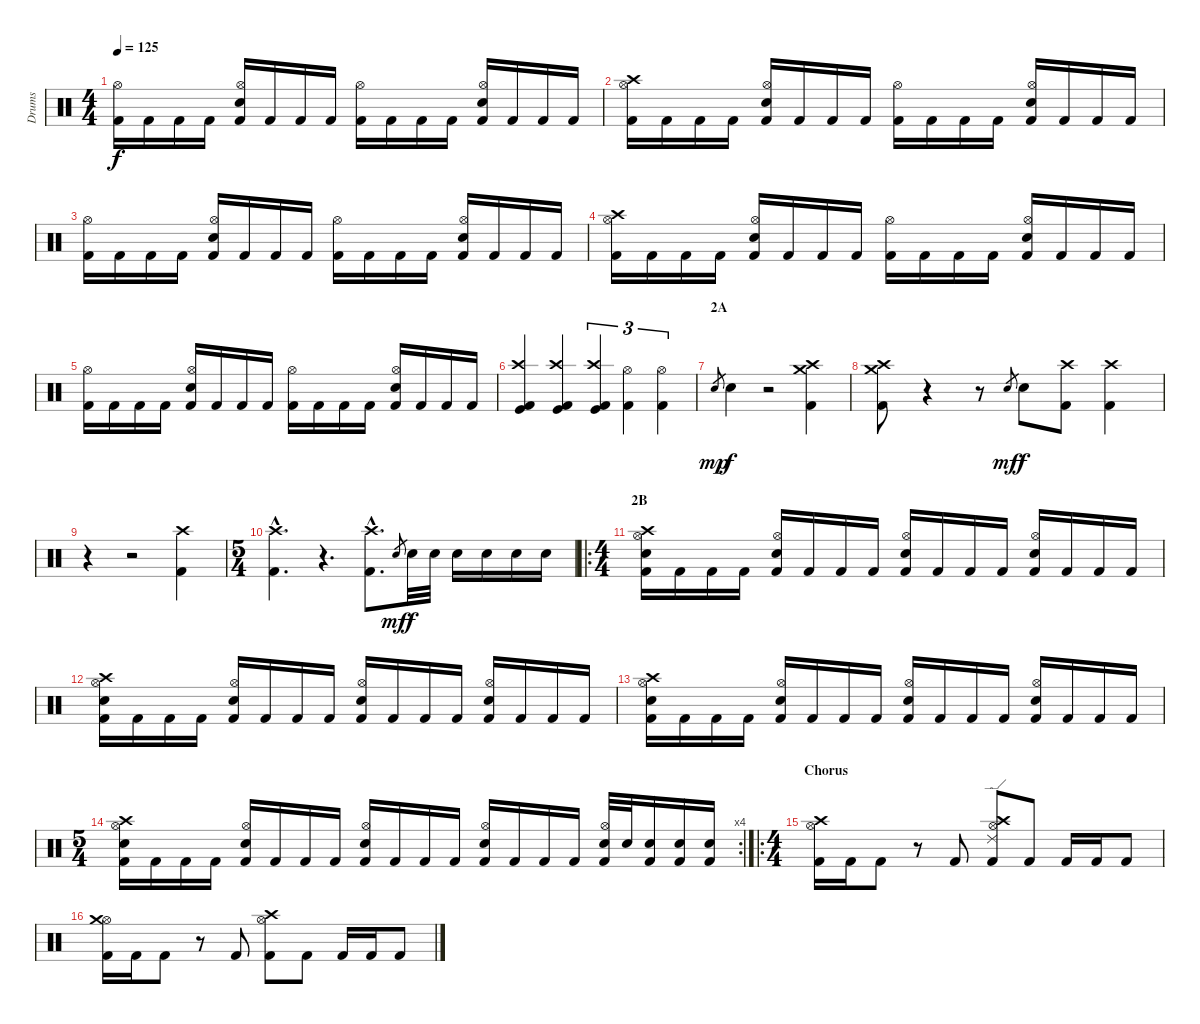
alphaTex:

\track ("Drums" "Drums") {instrument percussion}
\staff {score}
\articulation defaults
\ts (4 4)
\tempo 125
\clef neutral
\ks c
("Kick (hit) 2" "Hi-Hat (open)").16{dy f} "Kick (hit) 2".16 "Kick (hit) 2".16 "Kick (hit) 2".16 ("Kick (hit) 2" "Hi-Hat (open)" "Electric Snare (hit)").16 "Kick (hit) 2".16 "Kick (hit) 2".16 "Kick (hit) 2".16 ("Kick (hit) 2" "Hi-Hat (open)").16 "Kick (hit) 2".16 "Kick (hit) 2".16 "Kick (hit) 2".16 ("Kick (hit) 2" "Hi-Hat (open)" "Electric Snare (hit)").16 "Kick (hit) 2".16 "Kick (hit) 2".16 "Kick (hit) 2".16 |
("Kick (hit) 2" "Hi-Hat (open)" "Crash high (hit)").16 "Kick (hit) 2".16 "Kick (hit) 2".16 "Kick (hit) 2".16 ("Kick (hit) 2" "Hi-Hat (open)" "Electric Snare (hit)").16 "Kick (hit) 2".16 "Kick (hit) 2".16 "Kick (hit) 2".16 ("Kick (hit) 2" "Hi-Hat (open)").16 "Kick (hit) 2".16 "Kick (hit) 2".16 "Kick (hit) 2".16 ("Kick (hit) 2" "Hi-Hat (open)" "Electric Snare (hit)").16 "Kick (hit) 2".16 "Kick (hit) 2".16 "Kick (hit) 2".16 |
("Kick (hit) 2" "Hi-Hat (open)").16 "Kick (hit) 2".16 "Kick (hit) 2".16 "Kick (hit) 2".16 ("Kick (hit) 2" "Hi-Hat (open)" "Electric Snare (hit)").16 "Kick (hit) 2".16 "Kick (hit) 2".16 "Kick (hit) 2".16 ("Kick (hit) 2" "Hi-Hat (open)").16 "Kick (hit) 2".16 "Kick (hit) 2".16 "Kick (hit) 2".16 ("Kick (hit) 2" "Hi-Hat (open)" "Electric Snare (hit)").16 "Kick (hit) 2".16 "Kick (hit) 2".16 "Kick (hit) 2".16 |
("Kick (hit) 2" "Hi-Hat (open)" "Crash high (hit)").16 "Kick (hit) 2".16 "Kick (hit) 2".16 "Kick (hit) 2".16 ("Kick (hit) 2" "Hi-Hat (open)" "Electric Snare (hit)").16 "Kick (hit) 2".16 "Kick (hit) 2".16 "Kick (hit) 2".16 ("Kick (hit) 2" "Hi-Hat (open)").16 "Kick (hit) 2".16 "Kick (hit) 2".16 "Kick (hit) 2".16 ("Kick (hit) 2" "Hi-Hat (open)" "Electric Snare (hit)").16 "Kick (hit) 2".16 "Kick (hit) 2".16 "Kick (hit) 2".16 |
("Kick (hit) 2" "Hi-Hat (open)").16 "Kick (hit) 2".16 "Kick (hit) 2".16 "Kick (hit) 2".16 ("Kick (hit) 2" "Hi-Hat (open)" "Electric Snare (hit)").16 "Kick (hit) 2".16 "Kick (hit) 2".16 "Kick (hit) 2".16 ("Kick (hit) 2" "Hi-Hat (open)").16 "Kick (hit) 2".16 "Kick (hit) 2".16 "Kick (hit) 2".16 ("Kick (hit) 2" "Hi-Hat (open)" "Electric Snare (hit)").16 "Kick (hit) 2".16 "Kick (hit) 2".16 "Kick (hit) 2".16 |
("Crash high (hit)" "Kick (hit)" "Kick (hit) 2").4 ("Crash high (hit)" "Kick (hit)" "Kick (hit) 2").4 ("Crash high (hit)" "Kick (hit)" "Kick (hit) 2").4{tu (3 2)} ("Hi-Hat (open)" "Kick (hit) 2").4{tu (3 2)} ("Hi-Hat (open)" "Kick (hit) 2").4{tu (3 2)} |
\section ("" "2A")
"Snare (hit) 2".8{gr dy mp} "Electric Snare (hit)".4{dy f} r.2 ("Crash high (hit)" "Crash medium (hit)" "Kick (hit) 2").4 |
("Crash high (hit)" "Crash medium (hit)" "Kick (hit) 2").8 r.4 r.8 "Snare (hit) 2".8{gr dy mf} "Electric Snare (hit)".8{dy f} ("Crash high (hit)" "Kick (hit) 2").8 ("Crash high (hit)" "Kick (hit) 2").4 |
r.4 r.2 ("Crash high (hit)" "Kick (hit) 2").4 |
\ts (5 4)
("Crash high (hit)"{hac} "Kick (hit) 2"{hac}).4{d} r.4{d} ("Crash high (hit)"{hac} "Kick (hit) 2"{hac}).8{d} "Snare (hit) 2".8{gr dy mf} "Electric Snare (hit)".32{dy f} "Electric Snare (hit)".32 "Electric Snare (hit)".16 "Electric Snare (hit)".16 "Electric Snare (hit)".16 "Electric Snare (hit)".16 |
\ro
\ts (4 4)
\section ("" "2B")
("Kick (hit) 2" "Electric Snare (hit)" "Hi-Hat (open)" "Crash high (hit)").16 "Kick (hit) 2".16 "Kick (hit) 2".16 "Kick (hit) 2".16 ("Kick (hit) 2" "Electric Snare (hit)" "Hi-Hat (open)").16 "Kick (hit) 2".16 "Kick (hit) 2".16 "Kick (hit) 2".16 ("Kick (hit) 2" "Electric Snare (hit)" "Hi-Hat (open)").16 "Kick (hit) 2".16 "Kick (hit) 2".16 "Kick (hit) 2".16 ("Kick (hit) 2" "Electric Snare (hit)" "Hi-Hat (open)").16 "Kick (hit) 2".16 "Kick (hit) 2".16 "Kick (hit) 2".16 |
("Kick (hit) 2" "Electric Snare (hit)" "Hi-Hat (open)" "Crash high (hit)").16 "Kick (hit) 2".16 "Kick (hit) 2".16 "Kick (hit) 2".16 ("Kick (hit) 2" "Electric Snare (hit)" "Hi-Hat (open)").16 "Kick (hit) 2".16 "Kick (hit) 2".16 "Kick (hit) 2".16 ("Kick (hit) 2" "Electric Snare (hit)" "Hi-Hat (open)").16 "Kick (hit) 2".16 "Kick (hit) 2".16 "Kick (hit) 2".16 ("Kick (hit) 2" "Electric Snare (hit)" "Hi-Hat (open)").16 "Kick (hit) 2".16 "Kick (hit) 2".16 "Kick (hit) 2".16 |
("Kick (hit) 2" "Electric Snare (hit)" "Hi-Hat (open)" "Crash high (hit)").16 "Kick (hit) 2".16 "Kick (hit) 2".16 "Kick (hit) 2".16 ("Kick (hit) 2" "Electric Snare (hit)" "Hi-Hat (open)").16 "Kick (hit) 2".16 "Kick (hit) 2".16 "Kick (hit) 2".16 ("Kick (hit) 2" "Electric Snare (hit)" "Hi-Hat (open)").16 "Kick (hit) 2".16 "Kick (hit) 2".16 "Kick (hit) 2".16 ("Kick (hit) 2" "Electric Snare (hit)" "Hi-Hat (open)").16 "Kick (hit) 2".16 "Kick (hit) 2".16 "Kick (hit) 2".16 |
\rc 4
\ts (5 4)
("Kick (hit) 2" "Electric Snare (hit)" "Hi-Hat (open)" "Crash high (hit)").16 "Kick (hit) 2".16 "Kick (hit) 2".16 "Kick (hit) 2".16 ("Kick (hit) 2" "Electric Snare (hit)" "Hi-Hat (open)").16 "Kick (hit) 2".16 "Kick (hit) 2".16 "Kick (hit) 2".16 ("Kick (hit) 2" "Electric Snare (hit)" "Hi-Hat (open)").16 "Kick (hit) 2".16 "Kick (hit) 2".16 "Kick (hit) 2".16 ("Kick (hit) 2" "Electric Snare (hit)" "Hi-Hat (open)").16 "Kick (hit) 2".16 "Kick (hit) 2".16 "Kick (hit) 2".16 ("Kick (hit) 2" "Electric Snare (hit)" "Hi-Hat (open)").32 "Electric Snare (hit)".32 ("Kick (hit) 2" "Electric Snare (hit)").16 ("Kick (hit) 2" "Electric Snare (hit)").16 ("Kick (hit) 2" "Electric Snare (hit)").16 |
\ro
\ts (4 4)
\section ("" "Chorus")
("Kick (hit) 2" "Hi-Hat (open)" "Crash high (hit)").16 "Kick (hit) 2".16 "Kick (hit) 2".8 r.8 "Kick (hit) 2".8 ("Kick (hit) 2" "Hi-Hat (open)" "Ride (edge) 2" "Crash high (hit)").8 "Kick (hit) 2".8 "Kick (hit) 2".16 "Kick (hit) 2".16 "Kick (hit) 2".8 |
("Kick (hit) 2" "Hi-Hat (open)" "Crash medium (hit)").16 "Kick (hit) 2".16 "Kick (hit) 2".8 r.8 "Kick (hit) 2".8 ("Kick (hit) 2" "Hi-Hat (open)" "Crash high (hit)").8 "Kick (hit) 2".8 "Kick (hit) 2".16 "Kick (hit) 2".16 "Kick (hit) 2".8
